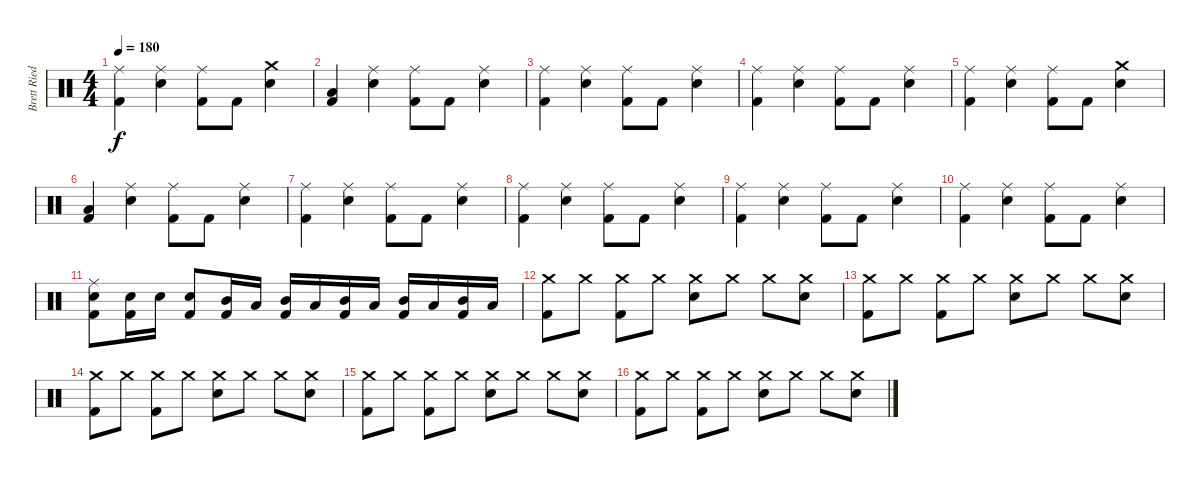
\track ("Brett Ried" "Brett Ried") {instrument percussion}
\staff {score}
\articulation defaults
\ts (4 4)
\tempo 180
\clef neutral
\ks c
("Ride (middle)" "Kick (hit) 2").4{dy f} ("Ride (middle)" "Snare (hit) 2").4 ("Ride (middle)" "Kick (hit) 2").8 "Kick (hit) 2".8 ("Crash medium (hit)" "Snare (hit) 2").4 |
("Low Floor Tom (hit)" "Kick (hit) 2").4 ("Ride (middle)" "Snare (hit) 2").4 ("Ride (middle)" "Kick (hit) 2").8 "Kick (hit) 2".8 ("Ride (middle)" "Snare (hit) 2").4 |
("Ride (middle)" "Kick (hit) 2").4 ("Ride (middle)" "Snare (hit) 2").4 ("Ride (middle)" "Kick (hit) 2").8 "Kick (hit) 2".8 ("Ride (middle)" "Snare (hit) 2").4 |
("Ride (middle)" "Kick (hit) 2").4 ("Ride (middle)" "Snare (hit) 2").4 ("Ride (middle)" "Kick (hit) 2").8 "Kick (hit) 2".8 ("Ride (middle)" "Snare (hit) 2").4 |
("Ride (middle)" "Kick (hit) 2").4 ("Ride (middle)" "Snare (hit) 2").4 ("Ride (middle)" "Kick (hit) 2").8 "Kick (hit) 2".8 ("Crash medium (hit)" "Snare (hit) 2").4 |
("Low Floor Tom (hit)" "Kick (hit) 2").4 ("Ride (middle)" "Snare (hit) 2").4 ("Ride (middle)" "Kick (hit) 2").8 "Kick (hit) 2".8 ("Ride (middle)" "Snare (hit) 2").4 |
("Ride (middle)" "Kick (hit) 2").4 ("Ride (middle)" "Snare (hit) 2").4 ("Ride (middle)" "Kick (hit) 2").8 "Kick (hit) 2".8 ("Ride (middle)" "Snare (hit) 2").4 |
("Ride (middle)" "Kick (hit) 2").4 ("Ride (middle)" "Snare (hit) 2").4 ("Ride (middle)" "Kick (hit) 2").8 "Kick (hit) 2".8 ("Ride (middle)" "Snare (hit) 2").4 |
("Ride (middle)" "Kick (hit) 2").4 ("Ride (middle)" "Snare (hit) 2").4 ("Ride (middle)" "Kick (hit) 2").8 "Kick (hit) 2".8 ("Ride (middle)" "Snare (hit) 2").4 |
("Ride (middle)" "Kick (hit) 2").4 ("Ride (middle)" "Snare (hit) 2").4 ("Ride (middle)" "Kick (hit) 2").8 "Kick (hit) 2".8 ("Ride (middle)" "Snare (hit) 2").4 |
("Ride (middle)" "Snare (hit) 2" "Kick (hit) 2").8 ("Snare (hit) 2" "Kick (hit) 2").16 "Snare (hit) 2".16 ("Snare (hit) 2" "Kick (hit) 2").8 ("Mid Tom (hit)" "Kick (hit) 2").16 "Low Tom (hit)".16 ("Mid Tom (hit)" "Kick (hit) 2").16 "Low Tom (hit)".16 ("Mid Tom (hit)" "Kick (hit) 2").16 "Low Tom (hit)".16 ("Mid Tom (hit)" "Kick (hit) 2").16 "Low Tom (hit)".16 ("Mid Tom (hit)" "Kick (hit) 2").16 "Low Tom (hit)".16 |
("Crash medium (hit)" "Kick (hit) 2").8 "Crash medium (hit)".8 ("Crash medium (hit)" "Kick (hit) 2").8 "Crash medium (hit)".8 ("Crash medium (hit)" "Snare (hit) 2").8 "Crash medium (hit)".8 "Crash medium (hit)".8 ("Crash medium (hit)" "Snare (hit) 2").8 |
("Crash medium (hit)" "Kick (hit) 2").8 "Crash medium (hit)".8 ("Crash medium (hit)" "Kick (hit) 2").8 "Crash medium (hit)".8 ("Crash medium (hit)" "Snare (hit) 2").8 "Crash medium (hit)".8 "Crash medium (hit)".8 ("Crash medium (hit)" "Snare (hit) 2").8 |
("Crash medium (hit)" "Kick (hit) 2").8 "Crash medium (hit)".8 ("Crash medium (hit)" "Kick (hit) 2").8 "Crash medium (hit)".8 ("Crash medium (hit)" "Snare (hit) 2").8 "Crash medium (hit)".8 "Crash medium (hit)".8 ("Crash medium (hit)" "Snare (hit) 2").8 |
("Crash medium (hit)" "Kick (hit) 2").8 "Crash medium (hit)".8 ("Crash medium (hit)" "Kick (hit) 2").8 "Crash medium (hit)".8 ("Crash medium (hit)" "Snare (hit) 2").8 "Crash medium (hit)".8 "Crash medium (hit)".8 ("Crash medium (hit)" "Snare (hit) 2").8 |
("Crash medium (hit)" "Kick (hit) 2").8 "Crash medium (hit)".8 ("Crash medium (hit)" "Kick (hit) 2").8 "Crash medium (hit)".8 ("Crash medium (hit)" "Snare (hit) 2").8 "Crash medium (hit)".8 "Crash medium (hit)".8 ("Crash medium (hit)" "Snare (hit) 2").8
